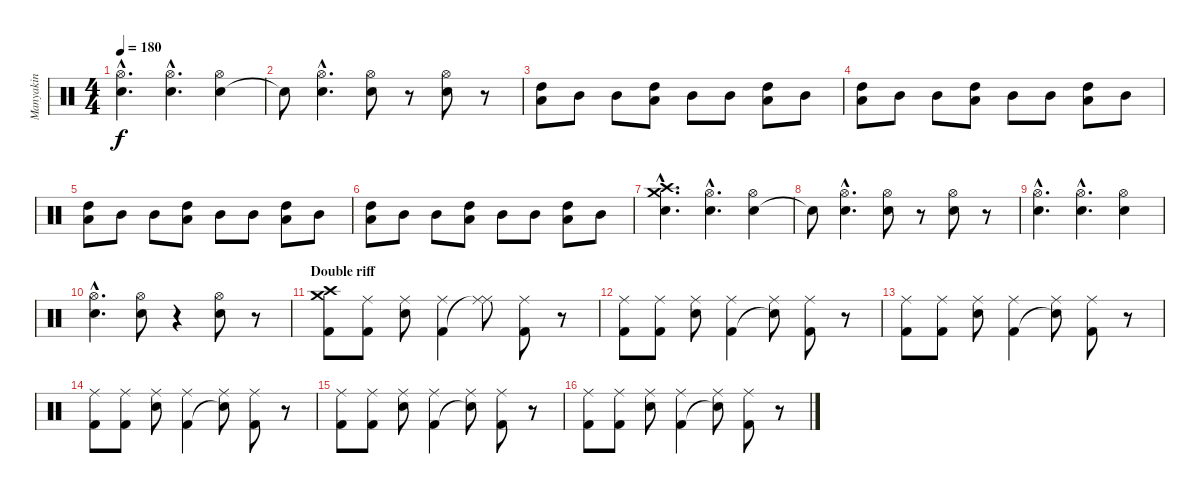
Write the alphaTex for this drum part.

\track ("Manyakin" "Manyakin") {instrument percussion}
\staff {score}
\articulation defaults
\ts (4 4)
\tempo 180
\clef neutral
\ks c
("Snare (hit) 2"{hac} "Hi-Hat (open)"{hac}).4{d dy f} ("Snare (hit) 2"{hac} "Hi-Hat (open)"{hac}).4{d} ("Snare (hit) 2" "Hi-Hat (open)").4 |
"Snare (hit)"{t}.8 ("Snare (hit) 2"{hac} "Hi-Hat (open)"{hac}).4{d} ("Snare (hit) 2" "Hi-Hat (open)").8 r.8 ("Snare (hit) 2" "Hi-Hat (open)").8 r.8 |
("Low Tom (hit)" "High Tom (hit)").8 "Mid Tom (hit)".8 "Mid Tom (hit)".8 ("Low Tom (hit)" "High Tom (hit)").8 "Mid Tom (hit)".8 "Mid Tom (hit)".8 ("Low Tom (hit)" "High Tom (hit)").8 "Mid Tom (hit)".8 |
("Low Tom (hit)" "High Tom (hit)").8 "Mid Tom (hit)".8 "Mid Tom (hit)".8 ("Low Tom (hit)" "High Tom (hit)").8 "Mid Tom (hit)".8 "Mid Tom (hit)".8 ("Low Tom (hit)" "High Tom (hit)").8 "Mid Tom (hit)".8 |
("High Tom (hit)" "Low Tom (hit)").8 "Mid Tom (hit)".8 "Mid Tom (hit)".8 ("High Tom (hit)" "Low Tom (hit)").8 "Mid Tom (hit)".8 "Mid Tom (hit)".8 ("High Tom (hit)" "Low Tom (hit)").8 "Mid Tom (hit)".8 |
("Low Tom (hit)" "High Tom (hit)").8 "Mid Tom (hit)".8 "Mid Tom (hit)".8 ("Low Tom (hit)" "High Tom (hit)").8 "Mid Tom (hit)".8 "Mid Tom (hit)".8 ("Low Tom (hit)" "High Tom (hit)").8 "Mid Tom (hit)".8 |
("Snare (hit) 2"{hac} "Crash high (hit)"{hac} "Crash medium (hit)"{hac}).4{d} ("Snare (hit) 2"{hac} "Hi-Hat (open)"{hac}).4{d} ("Snare (hit) 2" "Hi-Hat (open)").4 |
"Snare (hit)"{t}.8 ("Snare (hit) 2"{hac} "Hi-Hat (open)"{hac}).4{d} ("Snare (hit) 2" "Hi-Hat (open)").8 r.8 ("Snare (hit) 2" "Hi-Hat (open)").8 r.8 |
("Snare (hit) 2"{hac} "Hi-Hat (open)"{hac}).4{d} ("Snare (hit) 2"{hac} "Hi-Hat (open)"{hac}).4{d} ("Snare (hit) 2" "Hi-Hat (open)").4 |
("Snare (hit) 2"{hac} "Hi-Hat (open)"{hac}).4{d} ("Snare (hit) 2" "Hi-Hat (open)").8 r.4 ("Snare (hit) 2" "Hi-Hat (open)").8 r.8 |
\section ("" "Double riff")
("Kick (hit) 2" "Crash high (hit)" "Crash medium (hit)").8 ("Kick (hit) 2" "Ride (middle)").8 ("Snare (hit) 2" "Ride (middle)").8 ("Kick (hit) 2" "Ride (middle)").4 ("Ride (middle)"{t} "Ride (middle)").8 ("Kick (hit) 2" "Ride (middle)").8 r.8 |
("Kick (hit) 2" "Ride (middle)").8 ("Kick (hit) 2" "Ride (middle)").8 ("Snare (hit) 2" "Ride (middle)").8 ("Kick (hit) 2" "Ride (middle)").4 ("Snare (hit)"{t} "Ride (middle)").8 ("Kick (hit) 2" "Ride (middle)").8 r.8 |
("Kick (hit) 2" "Ride (middle)").8 ("Kick (hit) 2" "Ride (middle)").8 ("Snare (hit) 2" "Ride (middle)").8 ("Kick (hit) 2" "Ride (middle)").4 ("Snare (hit)"{t} "Ride (middle)").8 ("Kick (hit) 2" "Ride (middle)").8 r.8 |
("Kick (hit) 2" "Ride (middle)").8 ("Kick (hit) 2" "Ride (middle)").8 ("Snare (hit) 2" "Ride (middle)").8 ("Kick (hit) 2" "Ride (middle)").4 ("Snare (hit)"{t} "Ride (middle)").8 ("Kick (hit) 2" "Ride (middle)").8 r.8 |
("Kick (hit) 2" "Ride (middle)").8 ("Kick (hit) 2" "Ride (middle)").8 ("Snare (hit) 2" "Ride (middle)").8 ("Kick (hit) 2" "Ride (middle)").4 ("Snare (hit)"{t} "Ride (middle)").8 ("Kick (hit) 2" "Ride (middle)").8 r.8 |
("Kick (hit) 2" "Ride (middle)").8 ("Kick (hit) 2" "Ride (middle)").8 ("Snare (hit) 2" "Ride (middle)").8 ("Kick (hit) 2" "Ride (middle)").4 ("Snare (hit)"{t} "Ride (middle)").8 ("Kick (hit) 2" "Ride (middle)").8 r.8
